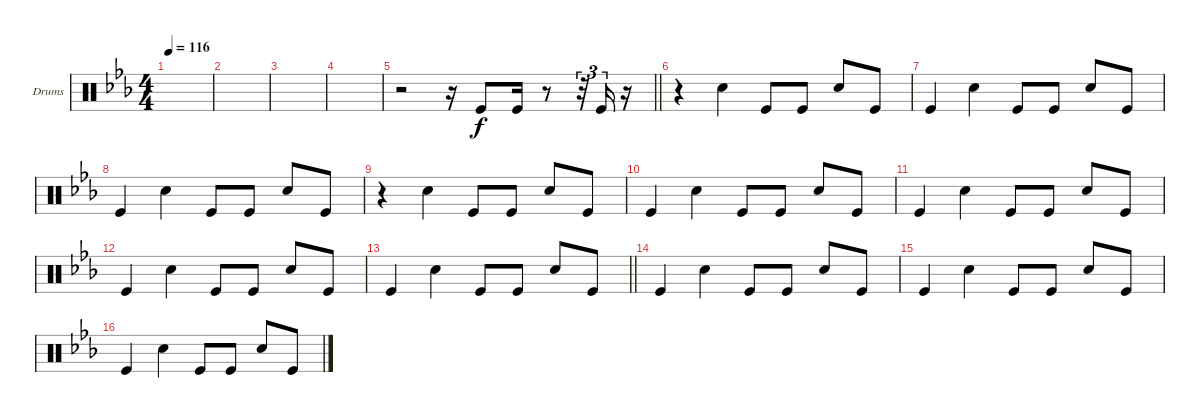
\defaultSystemsLayout 4
\bracketExtendMode groupsimilarinstruments
\firstSystemTrackNameOrientation horizontal
\otherSystemsTrackNameOrientation horizontal
\track ("Drumkit" "Drums") {instrument percussion}
\staff {score}
\articulation defaults
\ts (4 4)
\tempo 116
\clef neutral
\ks cminor
|
|
|
\scale
0.114398 |
\scale
0.510928
\barLineRight lightlight
r.2 r.16 "Kick (hit)".8 "Kick (hit)".16 r.8 r.32{tu (3 2)} "Kick (hit)".16{tu (3 2)} r.16 |
\scale
0.373974 r.4 "Snare (hit) 2".4 "Kick (hit)".8 "Kick (hit)".8 "Snare (hit) 2".8 "Kick (hit)".8 |
"Kick (hit)".4 "Snare (hit) 2".4 "Kick (hit)".8 "Kick (hit)".8 "Snare (hit) 2".8 "Kick (hit)".8 |
"Kick (hit)".4 "Snare (hit) 2".4 "Kick (hit)".8 "Kick (hit)".8 "Snare (hit) 2".8 "Kick (hit)".8 |
r.4 "Snare (hit) 2".4 "Kick (hit)".8 "Kick (hit)".8 "Snare (hit) 2".8 "Kick (hit)".8 |
"Kick (hit)".4 "Snare (hit) 2".4 "Kick (hit)".8 "Kick (hit)".8 "Snare (hit) 2".8 "Kick (hit)".8 |
"Kick (hit)".4 "Snare (hit) 2".4 "Kick (hit)".8 "Kick (hit)".8 "Snare (hit) 2".8 "Kick (hit)".8 |
"Kick (hit)".4 "Snare (hit) 2".4 "Kick (hit)".8 "Kick (hit)".8 "Snare (hit) 2".8 "Kick (hit)".8 |
\barLineRight lightlight "Kick (hit)".4 "Snare (hit) 2".4 "Kick (hit)".8 "Kick (hit)".8 "Snare (hit) 2".8 "Kick (hit)".8
|
"Kick (hit)".4 "Snare (hit) 2".4 "Kick (hit)".8 "Kick (hit)".8 "Snare (hit) 2".8 "Kick (hit)".8 |
"Kick (hit)".4 "Snare (hit) 2".4 "Kick (hit)".8 "Kick (hit)".8 "Snare (hit) 2".8 "Kick (hit)".8 |
\scale
0.395192 "Kick (hit)".4 "Snare (hit) 2".4 "Kick (hit)".8 "Kick (hit)".8 "Snare (hit) 2".8 "Kick (hit)".8
